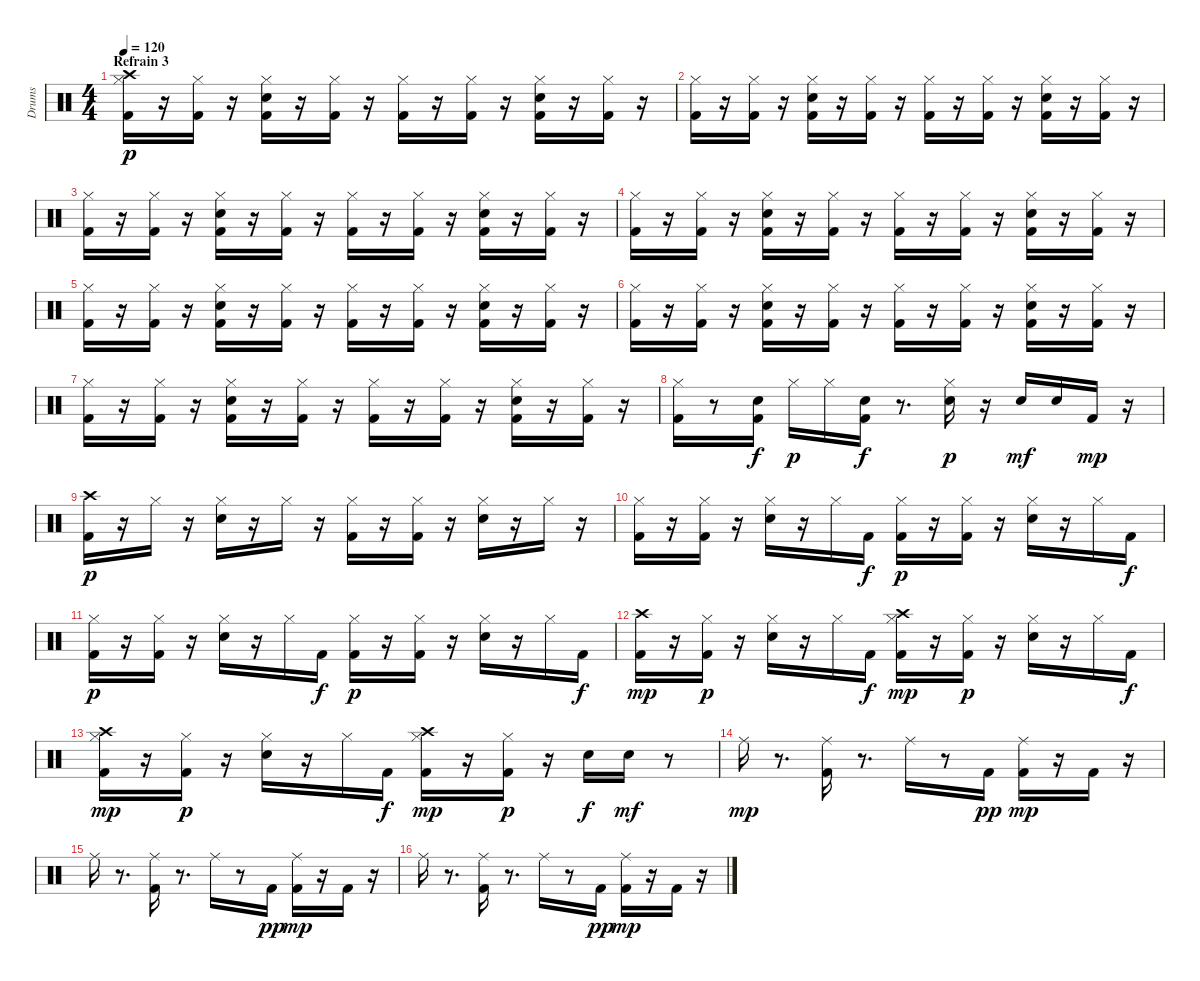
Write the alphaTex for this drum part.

\track ("Drums" "Drums") {instrument percussion}
\staff {score}
\articulation defaults
\ts (4 4)
\section ("" "Refrain 3")
\tempo 120
\clef neutral
\ks c
("Kick (hit) 2" "Hi-Hat (closed)" "Crash high (hit)").16{dy p} r.16 ("Kick (hit) 2" "Hi-Hat (closed)").16 r.16 ("Kick (hit) 2" "Electric Snare (hit)" "Hi-Hat (closed)").16 r.16 ("Kick (hit) 2" "Hi-Hat (closed)").16 r.16 ("Kick (hit) 2" "Hi-Hat (closed)").16 r.16 ("Kick (hit) 2" "Hi-Hat (closed)").16 r.16 ("Kick (hit) 2" "Electric Snare (hit)" "Hi-Hat (closed)").16 r.16 ("Kick (hit) 2" "Hi-Hat (closed)").16 r.16 |
("Kick (hit) 2" "Hi-Hat (closed)").16 r.16 ("Kick (hit) 2" "Hi-Hat (closed)").16 r.16 ("Kick (hit) 2" "Electric Snare (hit)" "Hi-Hat (closed)").16 r.16 ("Kick (hit) 2" "Hi-Hat (closed)").16 r.16 ("Kick (hit) 2" "Hi-Hat (closed)").16 r.16 ("Kick (hit) 2" "Hi-Hat (closed)").16 r.16 ("Kick (hit) 2" "Electric Snare (hit)" "Hi-Hat (closed)").16 r.16 ("Kick (hit) 2" "Hi-Hat (closed)").16 r.16 |
("Kick (hit) 2" "Hi-Hat (closed)").16 r.16 ("Kick (hit) 2" "Hi-Hat (closed)").16 r.16 ("Kick (hit) 2" "Electric Snare (hit)" "Hi-Hat (closed)").16 r.16 ("Kick (hit) 2" "Hi-Hat (closed)").16 r.16 ("Kick (hit) 2" "Hi-Hat (closed)").16 r.16 ("Kick (hit) 2" "Hi-Hat (closed)").16 r.16 ("Kick (hit) 2" "Electric Snare (hit)" "Hi-Hat (closed)").16 r.16 ("Kick (hit) 2" "Hi-Hat (closed)").16 r.16 |
("Kick (hit) 2" "Hi-Hat (closed)").16 r.16 ("Kick (hit) 2" "Hi-Hat (closed)").16 r.16 ("Kick (hit) 2" "Electric Snare (hit)" "Hi-Hat (closed)").16 r.16 ("Kick (hit) 2" "Hi-Hat (closed)").16 r.16 ("Kick (hit) 2" "Hi-Hat (closed)").16 r.16 ("Kick (hit) 2" "Hi-Hat (closed)").16 r.16 ("Kick (hit) 2" "Electric Snare (hit)" "Hi-Hat (closed)").16 r.16 ("Kick (hit) 2" "Hi-Hat (closed)").16 r.16 |
("Kick (hit) 2" "Hi-Hat (closed)").16 r.16 ("Kick (hit) 2" "Hi-Hat (closed)").16 r.16 ("Kick (hit) 2" "Electric Snare (hit)" "Hi-Hat (closed)").16 r.16 ("Kick (hit) 2" "Hi-Hat (closed)").16 r.16 ("Kick (hit) 2" "Hi-Hat (closed)").16 r.16 ("Kick (hit) 2" "Hi-Hat (closed)").16 r.16 ("Kick (hit) 2" "Electric Snare (hit)" "Hi-Hat (closed)").16 r.16 ("Kick (hit) 2" "Hi-Hat (closed)").16 r.16 |
("Kick (hit) 2" "Hi-Hat (closed)").16 r.16 ("Kick (hit) 2" "Hi-Hat (closed)").16 r.16 ("Kick (hit) 2" "Electric Snare (hit)" "Hi-Hat (closed)").16 r.16 ("Kick (hit) 2" "Hi-Hat (closed)").16 r.16 ("Kick (hit) 2" "Hi-Hat (closed)").16 r.16 ("Kick (hit) 2" "Hi-Hat (closed)").16 r.16 ("Kick (hit) 2" "Electric Snare (hit)" "Hi-Hat (closed)").16 r.16 ("Kick (hit) 2" "Hi-Hat (closed)").16 r.16 |
("Kick (hit) 2" "Hi-Hat (closed)").16 r.16 ("Kick (hit) 2" "Hi-Hat (closed)").16 r.16 ("Kick (hit) 2" "Electric Snare (hit)" "Hi-Hat (closed)").16 r.16 ("Kick (hit) 2" "Hi-Hat (closed)").16 r.16 ("Kick (hit) 2" "Hi-Hat (closed)").16 r.16 ("Kick (hit) 2" "Hi-Hat (closed)").16 r.16 ("Kick (hit) 2" "Electric Snare (hit)" "Hi-Hat (closed)").16 r.16 ("Kick (hit) 2" "Hi-Hat (closed)").16 r.16 |
("Kick (hit) 2" "Hi-Hat (closed)").16 r.8 ("Kick (hit) 2" "Electric Snare (hit)").16{dy f} "Hi-Hat (closed)".16{dy p} "Hi-Hat (closed)".16 ("Kick (hit) 2" "Electric Snare (hit)").16{dy f} r.8{d} ("Electric Snare (hit)" "Hi-Hat (closed)").16{dy p} r.16 "Electric Snare (hit)".16{dy mf} "Electric Snare (hit)".16 "Kick (hit) 2".16{dy mp} r.16 |
("Kick (hit) 2" "Crash high (hit)").16{dy p} r.16 "Hi-Hat (closed)".16 r.16 ("Electric Snare (hit)" "Hi-Hat (closed)").16 r.16 "Hi-Hat (closed)".16 r.16 ("Kick (hit) 2" "Hi-Hat (closed)").16 r.16 ("Kick (hit) 2" "Hi-Hat (closed)").16 r.16 ("Electric Snare (hit)" "Hi-Hat (closed)").16 r.16 "Hi-Hat (closed)".16 r.16 |
("Kick (hit) 2" "Hi-Hat (closed)").16 r.16 ("Kick (hit) 2" "Hi-Hat (closed)").16 r.16 ("Electric Snare (hit)" "Hi-Hat (closed)").16 r.16 "Hi-Hat (closed)".16 "Kick (hit) 2".16{dy f} ("Kick (hit) 2" "Hi-Hat (closed)").16{dy p} r.16 ("Kick (hit) 2" "Hi-Hat (closed)").16 r.16 ("Electric Snare (hit)" "Hi-Hat (closed)").16 r.16 "Hi-Hat (closed)".16 "Kick (hit) 2".16{dy f} |
("Kick (hit) 2" "Hi-Hat (closed)").16{dy p} r.16 ("Kick (hit) 2" "Hi-Hat (closed)").16 r.16 ("Electric Snare (hit)" "Hi-Hat (closed)").16 r.16 "Hi-Hat (closed)".16 "Kick (hit) 2".16{dy f} ("Kick (hit) 2" "Hi-Hat (closed)").16{dy p} r.16 ("Kick (hit) 2" "Hi-Hat (closed)").16 r.16 ("Electric Snare (hit)" "Hi-Hat (closed)").16 r.16 "Hi-Hat (closed)".16 "Kick (hit) 2".16{dy f} |
("Kick (hit) 2" "Crash high (hit)").16{dy mp} r.16 ("Kick (hit) 2" "Hi-Hat (closed)").16{dy p} r.16 ("Electric Snare (hit)" "Hi-Hat (closed)").16 r.16 "Hi-Hat (closed)".16 "Kick (hit) 2".16{dy f} ("Kick (hit) 2" "Hi-Hat (closed)" "Crash high (hit)").16{dy mp} r.16 ("Kick (hit) 2" "Hi-Hat (closed)").16{dy p} r.16 ("Electric Snare (hit)" "Hi-Hat (closed)").16 r.16 "Hi-Hat (closed)".16 "Kick (hit) 2".16{dy f} |
("Kick (hit) 2" "Hi-Hat (closed)" "Crash high (hit)").16{dy mp} r.16 ("Kick (hit) 2" "Hi-Hat (closed)").16{dy p} r.16 ("Electric Snare (hit)" "Hi-Hat (closed)").16 r.16 "Hi-Hat (closed)".16 "Kick (hit) 2".16{dy f} ("Kick (hit) 2" "Hi-Hat (closed)" "Crash high (hit)").16{dy mp} r.16 ("Kick (hit) 2" "Hi-Hat (closed)").16{dy p} r.16 "Electric Snare (hit)".16{dy f} "Electric Snare (hit)".16{dy mf} r.8 |
"Ride (middle)".16{dy mp} r.8{d} ("Kick (hit) 2" "Ride (middle)").16 r.8{d} "Ride (middle)".16 r.8 "Kick (hit) 2".16{dy pp} ("Kick (hit) 2" "Ride (middle)").16{dy mp} r.16 "Kick (hit) 2".16 r.16 |
"Ride (middle)".16 r.8{d} ("Kick (hit) 2" "Ride (middle)").16 r.8{d} "Ride (middle)".16 r.8 "Kick (hit) 2".16{dy pp} ("Kick (hit) 2" "Ride (middle)").16{dy mp} r.16 "Kick (hit) 2".16 r.16 |
"Ride (middle)".16 r.8{d} ("Kick (hit) 2" "Ride (middle)").16 r.8{d} "Ride (middle)".16 r.8 "Kick (hit) 2".16{dy pp} ("Kick (hit) 2" "Ride (middle)").16{dy mp} r.16 "Kick (hit) 2".16 r.16
